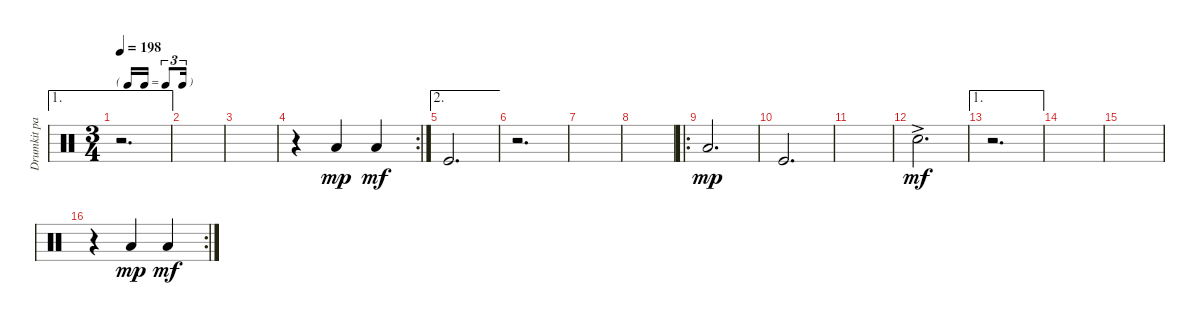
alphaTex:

\track ("Drumkit part 1" "Drumkit pa") {instrument percussion}
\staff {score}
\articulation defaults
\ae 1
\ts (3 4)
\tf triplet16th
\tempo 198
\clef neutral
\ks c
r.2{d dy f} |
|
|
\rc 2
r.4 "Low Floor Tom (hit)".4{dy mp} "Low Floor Tom (hit)".4{dy mf} |
\ae 2 "Kick (hit)".2{d}
|
r.2{d} |
|
|
\ro "Low Floor Tom (hit)".2{d dy mp}
|
"Kick (hit)".2{d} |
|
"Snare (hit) 2"{ac}.2{d dy mf} |
\ae 1
r.2{d} |
|
|
\rc 2
r.4 "Low Floor Tom (hit)".4{dy mp} "Low Floor Tom (hit)".4{dy mf}
